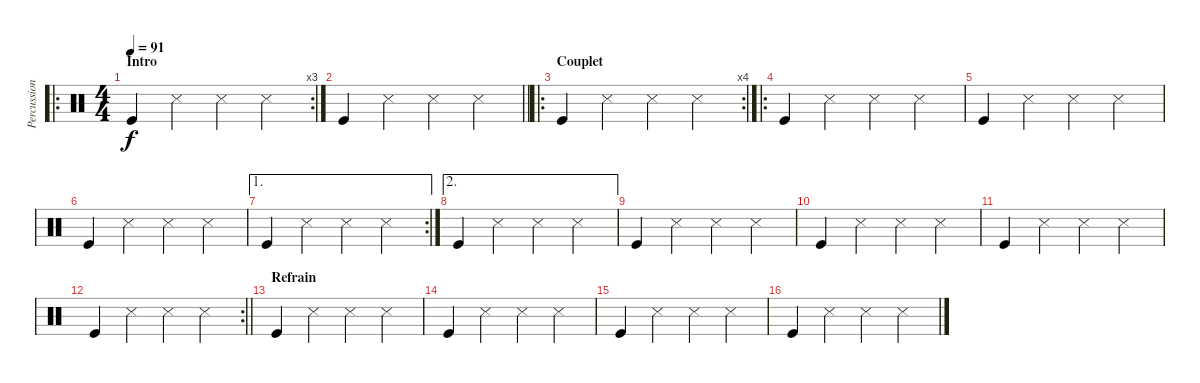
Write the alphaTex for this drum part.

\track ("Percussions" "Percussion") {instrument percussion}
\staff {score}
\articulation defaults
\ro
\rc 3
\ts (4 4)
\section ("" "Intro")
\tempo 91
\clef neutral
\ks c "Kick (hit)".4{dy f} "Snare (side stick) 3".4 "Snare (side stick) 3".4 "Metronome (hit)".4
|
\barLineRight lightlight "Kick (hit)".4 "Snare (side stick) 3".4 "Snare (side stick) 3".4 "Metronome (hit)".4
|
\ro
\rc 4
\section ("" "Couplet")
"Kick (hit)".4 "Snare (side stick) 3".4 "Snare (side stick) 3".4 "Metronome (hit)".4 |
\ro "Kick (hit)".4 "Snare (side stick) 3".4 "Snare (side stick) 3".4 "Metronome (hit)".4
|
"Kick (hit)".4 "Snare (side stick) 3".4 "Snare (side stick) 3".4 "Metronome (hit)".4 |
"Kick (hit)".4 "Snare (side stick) 3".4 "Snare (side stick) 3".4 "Metronome (hit)".4 |
\ae 1
\rc 2 "Kick (hit)".4 "Snare (side stick) 3".4 "Snare (side stick) 3".4 "Metronome (hit)".4
|
\ae 2 "Kick (hit)".4 "Snare (side stick) 3".4 "Snare (side stick) 3".4 "Metronome (hit)".4
|
"Kick (hit)".4 "Snare (side stick) 3".4 "Snare (side stick) 3".4 "Metronome (hit)".4 |
"Kick (hit)".4 "Snare (side stick) 3".4 "Snare (side stick) 3".4 "Metronome (hit)".4 |
"Kick (hit)".4 "Snare (side stick) 3".4 "Snare (side stick) 3".4 "Metronome (hit)".4 |
\rc 2
\barLineRight lightlight "Kick (hit)".4 "Snare (side stick) 3".4 "Snare (side stick) 3".4 "Metronome (hit)".4
|
\section ("" "Refrain")
"Kick (hit)".4 "Snare (side stick) 3".4 "Snare (side stick) 3".4 "Metronome (hit)".4 |
"Kick (hit)".4 "Snare (side stick) 3".4 "Snare (side stick) 3".4 "Metronome (hit)".4 |
"Kick (hit)".4 "Snare (side stick) 3".4 "Snare (side stick) 3".4 "Metronome (hit)".4 |
"Kick (hit)".4 "Snare (side stick) 3".4 "Snare (side stick) 3".4 "Metronome (hit)".4
